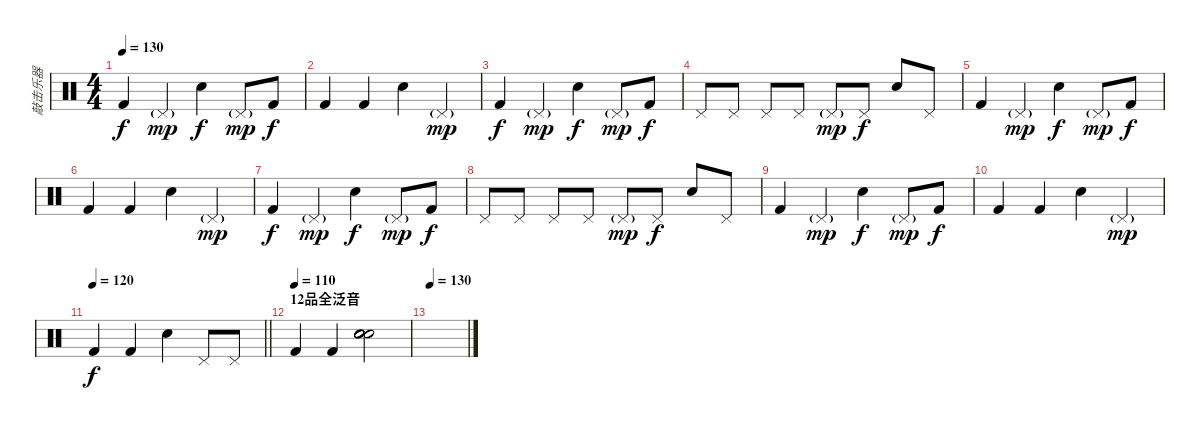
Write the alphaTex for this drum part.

\track ("敲击乐器" "敲击乐器") {instrument percussion}
\staff {score}
\articulation defaults
\ts (4 4)
\tempo 130
\clef neutral
\ks c "Kick (hit) 2".4{dy f} "Pedal Hi-Hat (hit)"{g}.4{dy mp} "Snare (hit) 2".4{dy f} "Pedal Hi-Hat (hit)"{g}.8{dy mp} "Kick (hit) 2".8{dy f}
|
"Kick (hit) 2".4 "Kick (hit) 2".4 "Snare (hit) 2".4 "Pedal Hi-Hat (hit)"{g}.4{dy mp} |
"Kick (hit) 2".4{dy f} "Pedal Hi-Hat (hit)"{g}.4{dy mp} "Snare (hit) 2".4{dy f} "Pedal Hi-Hat (hit)"{g}.8{dy mp} "Kick (hit) 2".8{dy f} |
"Pedal Hi-Hat (hit)".8 "Pedal Hi-Hat (hit)".8 "Pedal Hi-Hat (hit)".8 "Pedal Hi-Hat (hit)".8 "Pedal Hi-Hat (hit)"{g}.8{dy mp} "Pedal Hi-Hat (hit)".8{dy f} "Snare (hit) 2".8 "Pedal Hi-Hat (hit)".8 |
"Kick (hit) 2".4 "Pedal Hi-Hat (hit)"{g}.4{dy mp} "Snare (hit) 2".4{dy f} "Pedal Hi-Hat (hit)"{g}.8{dy mp} "Kick (hit) 2".8{dy f} |
"Kick (hit) 2".4 "Kick (hit) 2".4 "Snare (hit) 2".4 "Pedal Hi-Hat (hit)"{g}.4{dy mp} |
"Kick (hit) 2".4{dy f} "Pedal Hi-Hat (hit)"{g}.4{dy mp} "Snare (hit) 2".4{dy f} "Pedal Hi-Hat (hit)"{g}.8{dy mp} "Kick (hit) 2".8{dy f} |
"Pedal Hi-Hat (hit)".8 "Pedal Hi-Hat (hit)".8 "Pedal Hi-Hat (hit)".8 "Pedal Hi-Hat (hit)".8 "Pedal Hi-Hat (hit)"{g}.8{dy mp} "Pedal Hi-Hat (hit)".8{dy f} "Snare (hit) 2".8 "Pedal Hi-Hat (hit)".8 |
"Kick (hit) 2".4 "Pedal Hi-Hat (hit)"{g}.4{dy mp} "Snare (hit) 2".4{dy f} "Pedal Hi-Hat (hit)"{g}.8{dy mp} "Kick (hit) 2".8{dy f} |
"Kick (hit) 2".4 "Kick (hit) 2".4 "Snare (hit) 2".4 "Pedal Hi-Hat (hit)"{g}.4{dy mp} |
\tempo 120
\barLineRight lightlight "Kick (hit) 2".4{dy f} "Kick (hit) 2".4 "Snare (hit) 2".4 "Pedal Hi-Hat (hit)".8 "Pedal Hi-Hat (hit)".8
|
\section ("" "12品全泛音")
\tempo (110)
"Kick (hit) 2".4 "Kick (hit) 2".4 ("Snare (hit)" "Snare (hit)" "Snare (hit)" "Snare (hit)" "Snare (hit)").2 |
\tempo 130
